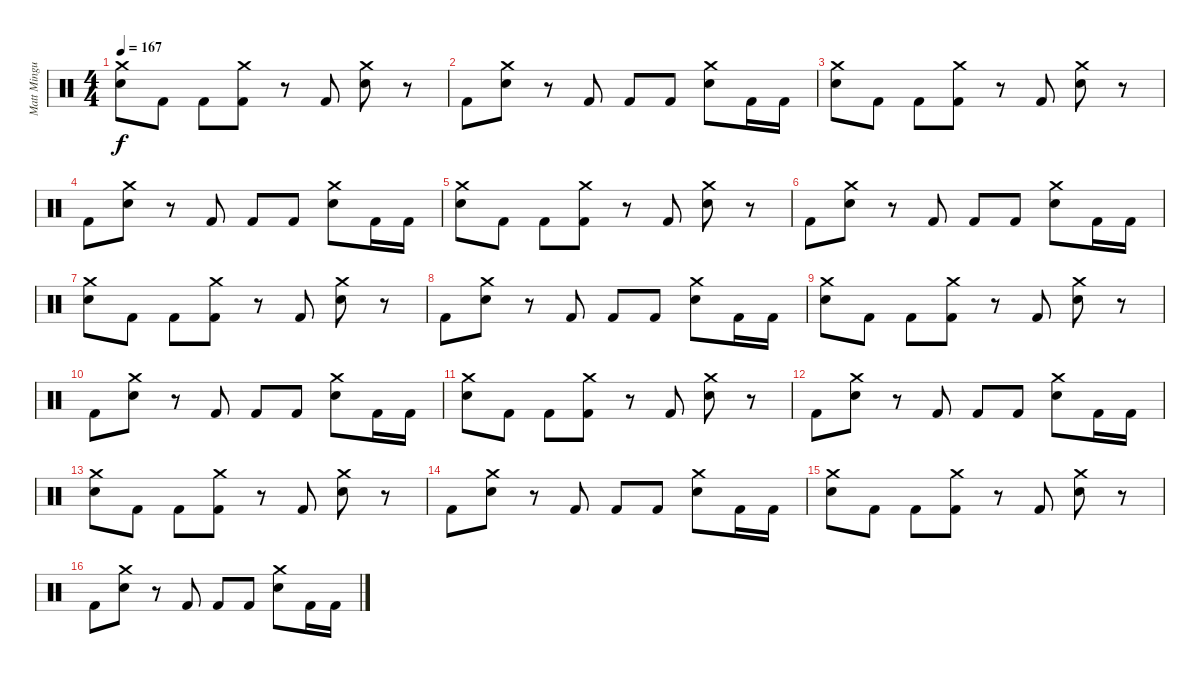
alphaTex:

\track ("Matt Mingus" "Matt Mingu") {instrument percussion}
\staff {score}
\articulation defaults
\ts (4 4)
\tempo 167
\clef neutral
\ks c
("Electric Snare (hit)" "Crash medium (hit)").8{dy f} "Kick (hit) 2".8 "Kick (hit) 2".8 ("Kick (hit) 2" "Crash medium (hit)").8 r.8 "Kick (hit) 2".8 ("Electric Snare (hit)" "Crash medium (hit)").8 r.8 |
"Kick (hit) 2".8 ("Electric Snare (hit)" "Crash medium (hit)").8 r.8 "Kick (hit) 2".8 "Kick (hit) 2".8 "Kick (hit) 2".8 ("Electric Snare (hit)" "Crash medium (hit)").8 "Kick (hit) 2".16 "Kick (hit) 2".16 |
("Electric Snare (hit)" "Crash medium (hit)").8 "Kick (hit) 2".8 "Kick (hit) 2".8 ("Kick (hit) 2" "Crash medium (hit)").8 r.8 "Kick (hit) 2".8 ("Electric Snare (hit)" "Crash medium (hit)").8 r.8 |
"Kick (hit) 2".8 ("Electric Snare (hit)" "Crash medium (hit)").8 r.8 "Kick (hit) 2".8 "Kick (hit) 2".8 "Kick (hit) 2".8 ("Electric Snare (hit)" "Crash medium (hit)").8 "Kick (hit) 2".16 "Kick (hit) 2".16 |
("Electric Snare (hit)" "Crash medium (hit)").8 "Kick (hit) 2".8 "Kick (hit) 2".8 ("Kick (hit) 2" "Crash medium (hit)").8 r.8 "Kick (hit) 2".8 ("Electric Snare (hit)" "Crash medium (hit)").8 r.8 |
"Kick (hit) 2".8 ("Electric Snare (hit)" "Crash medium (hit)").8 r.8 "Kick (hit) 2".8 "Kick (hit) 2".8 "Kick (hit) 2".8 ("Electric Snare (hit)" "Crash medium (hit)").8 "Kick (hit) 2".16 "Kick (hit) 2".16 |
("Electric Snare (hit)" "Crash medium (hit)").8 "Kick (hit) 2".8 "Kick (hit) 2".8 ("Kick (hit) 2" "Crash medium (hit)").8 r.8 "Kick (hit) 2".8 ("Electric Snare (hit)" "Crash medium (hit)").8 r.8 |
"Kick (hit) 2".8 ("Electric Snare (hit)" "Crash medium (hit)").8 r.8 "Kick (hit) 2".8 "Kick (hit) 2".8 "Kick (hit) 2".8 ("Electric Snare (hit)" "Crash medium (hit)").8 "Kick (hit) 2".16 "Kick (hit) 2".16 |
("Electric Snare (hit)" "Crash medium (hit)").8 "Kick (hit) 2".8 "Kick (hit) 2".8 ("Kick (hit) 2" "Crash medium (hit)").8 r.8 "Kick (hit) 2".8 ("Electric Snare (hit)" "Crash medium (hit)").8 r.8 |
"Kick (hit) 2".8 ("Electric Snare (hit)" "Crash medium (hit)").8 r.8 "Kick (hit) 2".8 "Kick (hit) 2".8 "Kick (hit) 2".8 ("Electric Snare (hit)" "Crash medium (hit)").8 "Kick (hit) 2".16 "Kick (hit) 2".16 |
("Electric Snare (hit)" "Crash medium (hit)").8 "Kick (hit) 2".8 "Kick (hit) 2".8 ("Kick (hit) 2" "Crash medium (hit)").8 r.8 "Kick (hit) 2".8 ("Electric Snare (hit)" "Crash medium (hit)").8 r.8 |
"Kick (hit) 2".8 ("Electric Snare (hit)" "Crash medium (hit)").8 r.8 "Kick (hit) 2".8 "Kick (hit) 2".8 "Kick (hit) 2".8 ("Electric Snare (hit)" "Crash medium (hit)").8 "Kick (hit) 2".16 "Kick (hit) 2".16 |
("Electric Snare (hit)" "Crash medium (hit)").8 "Kick (hit) 2".8 "Kick (hit) 2".8 ("Kick (hit) 2" "Crash medium (hit)").8 r.8 "Kick (hit) 2".8 ("Electric Snare (hit)" "Crash medium (hit)").8 r.8 |
"Kick (hit) 2".8 ("Electric Snare (hit)" "Crash medium (hit)").8 r.8 "Kick (hit) 2".8 "Kick (hit) 2".8 "Kick (hit) 2".8 ("Electric Snare (hit)" "Crash medium (hit)").8 "Kick (hit) 2".16 "Kick (hit) 2".16 |
("Electric Snare (hit)" "Crash medium (hit)").8 "Kick (hit) 2".8 "Kick (hit) 2".8 ("Kick (hit) 2" "Crash medium (hit)").8 r.8 "Kick (hit) 2".8 ("Electric Snare (hit)" "Crash medium (hit)").8 r.8 |
"Kick (hit) 2".8 ("Electric Snare (hit)" "Crash medium (hit)").8 r.8 "Kick (hit) 2".8 "Kick (hit) 2".8 "Kick (hit) 2".8 ("Electric Snare (hit)" "Crash medium (hit)").8 "Kick (hit) 2".16 "Kick (hit) 2".16
